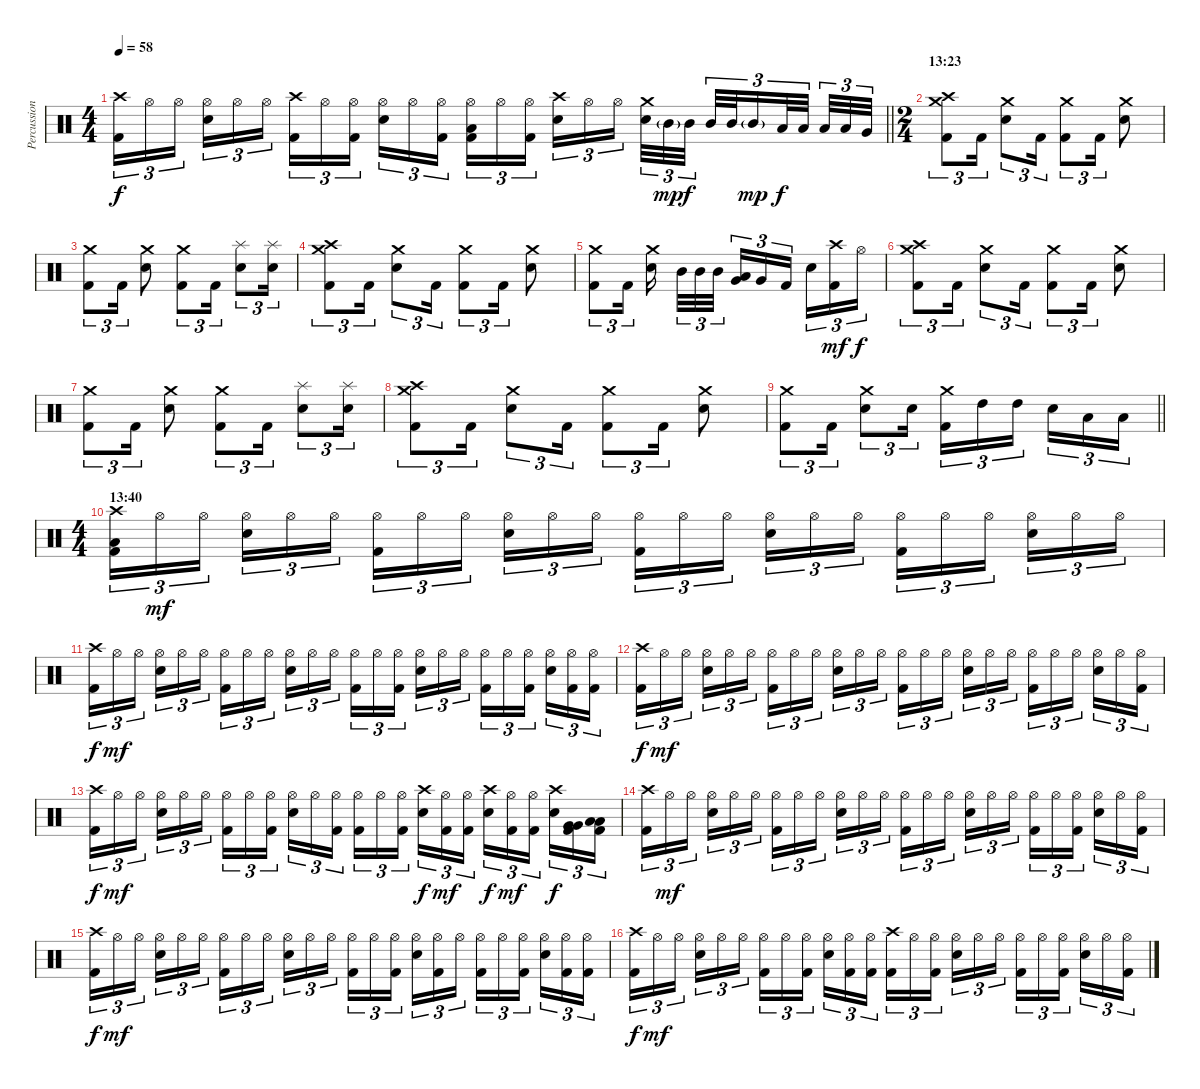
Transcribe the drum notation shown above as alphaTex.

\track ("Percussions" "Percussion") {instrument percussion}
\staff {score}
\articulation defaults
\ts (4 4)
\tempo 58
\clef neutral
\barLineRight lightlight
\ks c
("Crash high (hit)" "Kick (hit) 2").16{tu (3 2) dy f} "Hi-Hat (open)".16{tu (3 2)} "Hi-Hat (open)".16{tu (3 2) beam splitsecondary} ("Hi-Hat (open)" "Snare (hit) 2").16{tu (3 2)} "Hi-Hat (open)".16{tu (3 2)} "Hi-Hat (open)".16{tu (3 2)} ("Crash high (hit)" "Kick (hit) 2").16{tu (3 2)} "Hi-Hat (open)".16{tu (3 2)} ("Hi-Hat (open)" "Kick (hit) 2").16{tu (3 2) beam splitsecondary} ("Hi-Hat (open)" "Snare (hit) 2").16{tu (3 2)} "Hi-Hat (open)".16{tu (3 2)} ("Hi-Hat (open)" "Kick (hit) 2").16{tu (3 2)} ("Hi-Hat (open)" "Low Floor Tom (hit)" "Kick (hit) 2").16{tu (3 2)} "Hi-Hat (open)".16{tu (3 2)} ("Hi-Hat (open)" "Kick (hit) 2").16{tu (3 2) beam splitsecondary} ("Crash high (hit)" "Snare (hit) 2").16{tu (3 2)} "Hi-Hat (open)".16{tu (3 2)} "Hi-Hat (open)".16{tu (3 2)} ("Crash medium (hit)" "Snare (hit) 2").32{tu (3 2)} "Mid Tom (hit)"{g}.32{tu (3 2) dy mp} "Mid Tom (hit)".32{tu (3 2) dy f beam splitsecondary} "Mid Tom (hit)".32{tu (3 2)} "Mid Tom (hit)".32{tu (3 2)} "Mid Tom (hit)"{g}.16{tu (3 2) dy mp} "Low Tom (hit)".32{tu (3 2) dy f} "Low Tom (hit)".32{tu (3 2) beam splitsecondary} "Low Tom (hit)".32{tu (3 2)} "Low Tom (hit)".32{tu (3 2)} "Very Low Tom (hit)".32{tu (3 2)} |
\ts (2 4)
\section ("" "13:23")
("Crash medium (hit)" "Crash high (hit)" "Kick (hit) 2").8{tu (3 2)} "Kick (hit) 2".16{tu (3 2)} ("Crash medium (hit)" "Snare (hit) 2").8{tu (3 2)} "Kick (hit) 2".16{tu (3 2)} ("Crash medium (hit)" "Kick (hit) 2").8{tu (3 2)} "Kick (hit) 2".16{tu (3 2)} ("Crash medium (hit)" "Snare (hit) 2").8 |
("Crash medium (hit)" "Kick (hit) 2").8{tu (3 2)} "Kick (hit) 2".16{tu (3 2)} ("Crash medium (hit)" "Snare (hit) 2").8 ("Crash medium (hit)" "Kick (hit) 2").8{tu (3 2)} "Kick (hit) 2".16{tu (3 2)} ("Splash (hit)" "Snare (hit) 2").8{tu (3 2)} ("Splash (hit)" "Snare (hit) 2").16{tu (3 2)} |
("Crash medium (hit)" "Crash high (hit)" "Kick (hit) 2").8{tu (3 2)} "Kick (hit) 2".16{tu (3 2)} ("Crash medium (hit)" "Snare (hit) 2").8{tu (3 2)} "Kick (hit) 2".16{tu (3 2)} ("Crash medium (hit)" "Kick (hit) 2").8{tu (3 2)} "Kick (hit) 2".16{tu (3 2)} ("Crash medium (hit)" "Snare (hit) 2").8 |
("Crash medium (hit)" "Kick (hit) 2").8{tu (3 2)} "Kick (hit) 2".16{tu (3 2) beam splitsecondary} ("Crash medium (hit)" "Snare (hit) 2").16{beam splitsecondary} "Mid Tom (hit)".32{tu (3 2)} "Mid Tom (hit)".32{tu (3 2)} "Mid Tom (hit)".32{tu (3 2)} ("Low Tom (hit)" "Very Low Tom (hit)").16{tu (3 2)} "Very Low Tom (hit)".16{tu (3 2)} "Kick (hit) 2".16{tu (3 2) beam splitsecondary} "Snare (hit) 2".16{tu (3 2)} ("Crash high (hit)" "Kick (hit) 2").16{tu (3 2) dy mf} "Hi-Hat (open)".16{tu (3 2) dy f} |
("Crash medium (hit)" "Crash high (hit)" "Kick (hit) 2").8{tu (3 2)} "Kick (hit) 2".16{tu (3 2)} ("Crash medium (hit)" "Snare (hit) 2").8{tu (3 2)} "Kick (hit) 2".16{tu (3 2)} ("Crash medium (hit)" "Kick (hit) 2").8{tu (3 2)} "Kick (hit) 2".16{tu (3 2)} ("Crash medium (hit)" "Snare (hit) 2").8 |
("Crash medium (hit)" "Kick (hit) 2").8{tu (3 2)} "Kick (hit) 2".16{tu (3 2)} ("Crash medium (hit)" "Snare (hit) 2").8 ("Crash medium (hit)" "Kick (hit) 2").8{tu (3 2)} "Kick (hit) 2".16{tu (3 2)} ("Splash (hit)" "Snare (hit) 2").8{tu (3 2)} ("Splash (hit)" "Snare (hit) 2").16{tu (3 2)} |
("Crash medium (hit)" "Crash high (hit)" "Kick (hit) 2").8{tu (3 2)} "Kick (hit) 2".16{tu (3 2)} ("Crash medium (hit)" "Snare (hit) 2").8{tu (3 2)} "Kick (hit) 2".16{tu (3 2)} ("Crash medium (hit)" "Kick (hit) 2").8{tu (3 2)} "Kick (hit) 2".16{tu (3 2)} ("Crash medium (hit)" "Snare (hit) 2").8 |
\barLineRight lightlight
("Crash medium (hit)" "Kick (hit) 2").8{tu (3 2)} "Kick (hit) 2".16{tu (3 2)} ("Crash medium (hit)" "Snare (hit) 2").8{tu (3 2)} "Snare (hit) 2".16{tu (3 2)} ("Crash medium (hit)" "Kick (hit) 2").16{tu (3 2)} "High Tom (hit)".16{tu (3 2)} "High Tom (hit)".16{tu (3 2) beam splitsecondary} "Snare (hit) 2".16{tu (3 2)} "Low Tom (hit)".16{tu (3 2)} "Low Tom (hit)".16{tu (3 2)} |
\ts (4 4)
\section ("" "13:40")
("Low Floor Tom (hit)" "Crash high (hit)" "Kick (hit) 2").16{tu (3 2)} "Hi-Hat (open)".16{tu (3 2) dy mf} "Hi-Hat (open)".16{tu (3 2) beam splitsecondary} ("Hi-Hat (open)" "Snare (hit) 2").16{tu (3 2)} "Hi-Hat (open)".16{tu (3 2)} "Hi-Hat (open)".16{tu (3 2)} ("Hi-Hat (open)" "Kick (hit) 2").16{tu (3 2)} "Hi-Hat (open)".16{tu (3 2)} "Hi-Hat (open)".16{tu (3 2) beam splitsecondary} ("Hi-Hat (open)" "Snare (hit) 2").16{tu (3 2)} "Hi-Hat (open)".16{tu (3 2)} "Hi-Hat (open)".16{tu (3 2)} ("Hi-Hat (open)" "Kick (hit) 2").16{tu (3 2)} "Hi-Hat (open)".16{tu (3 2)} "Hi-Hat (open)".16{tu (3 2) beam splitsecondary} ("Hi-Hat (open)" "Snare (hit) 2").16{tu (3 2)} "Hi-Hat (open)".16{tu (3 2)} "Hi-Hat (open)".16{tu (3 2)} ("Hi-Hat (open)" "Kick (hit) 2").16{tu (3 2)} "Hi-Hat (open)".16{tu (3 2)} "Hi-Hat (open)".16{tu (3 2) beam splitsecondary} ("Hi-Hat (open)" "Snare (hit) 2").16{tu (3 2)} "Hi-Hat (open)".16{tu (3 2)} "Hi-Hat (open)".16{tu (3 2)} |
("Crash high (hit)" "Kick (hit) 2").16{tu (3 2) dy f} "Hi-Hat (open)".16{tu (3 2) dy mf} "Hi-Hat (open)".16{tu (3 2) beam splitsecondary} ("Hi-Hat (open)" "Snare (hit) 2").16{tu (3 2)} "Hi-Hat (open)".16{tu (3 2)} "Hi-Hat (open)".16{tu (3 2)} ("Hi-Hat (open)" "Kick (hit) 2").16{tu (3 2)} "Hi-Hat (open)".16{tu (3 2)} "Hi-Hat (open)".16{tu (3 2) beam splitsecondary} ("Hi-Hat (open)" "Snare (hit) 2").16{tu (3 2)} "Hi-Hat (open)".16{tu (3 2)} "Hi-Hat (open)".16{tu (3 2)} ("Hi-Hat (open)" "Kick (hit) 2").16{tu (3 2)} "Hi-Hat (open)".16{tu (3 2)} ("Hi-Hat (open)" "Kick (hit) 2").16{tu (3 2) beam splitsecondary} ("Hi-Hat (open)" "Snare (hit) 2").16{tu (3 2)} "Hi-Hat (open)".16{tu (3 2)} "Hi-Hat (open)".16{tu (3 2)} ("Hi-Hat (open)" "Kick (hit) 2").16{tu (3 2)} "Hi-Hat (open)".16{tu (3 2)} ("Hi-Hat (open)" "Kick (hit) 2").16{tu (3 2) beam splitsecondary} ("Hi-Hat (open)" "Snare (hit) 2").16{tu (3 2)} ("Hi-Hat (open)" "Kick (hit) 2").16{tu (3 2)} ("Hi-Hat (open)" "Kick (hit) 2").16{tu (3 2)} |
("Crash high (hit)" "Kick (hit) 2").16{tu (3 2) dy f} "Hi-Hat (open)".16{tu (3 2) dy mf} "Hi-Hat (open)".16{tu (3 2) beam splitsecondary} ("Hi-Hat (open)" "Snare (hit) 2").16{tu (3 2)} "Hi-Hat (open)".16{tu (3 2)} "Hi-Hat (open)".16{tu (3 2)} ("Hi-Hat (open)" "Kick (hit) 2").16{tu (3 2)} "Hi-Hat (open)".16{tu (3 2)} "Hi-Hat (open)".16{tu (3 2) beam splitsecondary} ("Hi-Hat (open)" "Snare (hit) 2").16{tu (3 2)} "Hi-Hat (open)".16{tu (3 2)} "Hi-Hat (open)".16{tu (3 2)} ("Hi-Hat (open)" "Kick (hit) 2").16{tu (3 2)} "Hi-Hat (open)".16{tu (3 2)} "Hi-Hat (open)".16{tu (3 2) beam splitsecondary} ("Hi-Hat (open)" "Snare (hit) 2").16{tu (3 2)} "Hi-Hat (open)".16{tu (3 2)} "Hi-Hat (open)".16{tu (3 2)} ("Hi-Hat (open)" "Kick (hit) 2").16{tu (3 2)} "Hi-Hat (open)".16{tu (3 2)} "Hi-Hat (open)".16{tu (3 2) beam splitsecondary} ("Hi-Hat (open)" "Snare (hit) 2").16{tu (3 2)} "Hi-Hat (open)".16{tu (3 2)} ("Hi-Hat (open)" "Kick (hit) 2").16{tu (3 2)} |
("Crash high (hit)" "Kick (hit) 2").16{tu (3 2) dy f} "Hi-Hat (open)".16{tu (3 2) dy mf} "Hi-Hat (open)".16{tu (3 2) beam splitsecondary} ("Hi-Hat (open)" "Snare (hit) 2").16{tu (3 2)} "Hi-Hat (open)".16{tu (3 2)} "Hi-Hat (open)".16{tu (3 2)} ("Hi-Hat (open)" "Kick (hit) 2").16{tu (3 2)} "Hi-Hat (open)".16{tu (3 2)} ("Hi-Hat (open)" "Kick (hit) 2").16{tu (3 2) beam splitsecondary} ("Hi-Hat (open)" "Snare (hit) 2").16{tu (3 2)} "Hi-Hat (open)".16{tu (3 2)} ("Hi-Hat (open)" "Kick (hit) 2").16{tu (3 2)} ("Hi-Hat (open)" "Kick (hit) 2").16{tu (3 2)} "Hi-Hat (open)".16{tu (3 2)} ("Hi-Hat (open)" "Kick (hit) 2").16{tu (3 2) beam splitsecondary} ("Crash high (hit)" "Snare (hit) 2").16{tu (3 2) dy f} ("Hi-Hat (open)" "Kick (hit) 2").16{tu (3 2) dy mf} ("Hi-Hat (open)" "Kick (hit) 2").16{tu (3 2)} ("Crash high (hit)" "Snare (hit) 2").16{tu (3 2) dy f} ("Hi-Hat (open)" "Kick (hit) 2").16{tu (3 2) dy mf} ("Hi-Hat (open)" "Kick (hit) 2").16{tu (3 2) beam splitsecondary} ("Crash high (hit)" "Snare (hit) 2").16{tu (3 2) dy f} ("Very Low Tom (hit)" "Very Low Tom (hit)" "Kick (hit) 2").16{tu (3 2)} ("Low Floor Tom (hit)" "Low Floor Tom (hit)" "Kick (hit) 2").16{tu (3 2)} |
("Crash high (hit)" "Kick (hit) 2").16{tu (3 2)} "Hi-Hat (open)".16{tu (3 2) dy mf} "Hi-Hat (open)".16{tu (3 2) beam splitsecondary} ("Hi-Hat (open)" "Snare (hit) 2").16{tu (3 2)} "Hi-Hat (open)".16{tu (3 2)} "Hi-Hat (open)".16{tu (3 2)} ("Hi-Hat (open)" "Kick (hit) 2").16{tu (3 2)} "Hi-Hat (open)".16{tu (3 2)} "Hi-Hat (open)".16{tu (3 2) beam splitsecondary} ("Hi-Hat (open)" "Snare (hit) 2").16{tu (3 2)} "Hi-Hat (open)".16{tu (3 2)} "Hi-Hat (open)".16{tu (3 2)} ("Hi-Hat (open)" "Kick (hit) 2").16{tu (3 2)} "Hi-Hat (open)".16{tu (3 2)} "Hi-Hat (open)".16{tu (3 2) beam splitsecondary} ("Hi-Hat (open)" "Snare (hit) 2").16{tu (3 2)} "Hi-Hat (open)".16{tu (3 2)} "Hi-Hat (open)".16{tu (3 2)} ("Hi-Hat (open)" "Kick (hit) 2").16{tu (3 2)} "Hi-Hat (open)".16{tu (3 2)} ("Hi-Hat (open)" "Kick (hit) 2").16{tu (3 2) beam splitsecondary} ("Hi-Hat (open)" "Snare (hit) 2").16{tu (3 2)} "Hi-Hat (open)".16{tu (3 2)} ("Hi-Hat (open)" "Kick (hit) 2").16{tu (3 2)} |
("Crash high (hit)" "Kick (hit) 2").16{tu (3 2) dy f} "Hi-Hat (open)".16{tu (3 2) dy mf} "Hi-Hat (open)".16{tu (3 2) beam splitsecondary} ("Hi-Hat (open)" "Snare (hit) 2").16{tu (3 2)} "Hi-Hat (open)".16{tu (3 2)} "Hi-Hat (open)".16{tu (3 2)} ("Hi-Hat (open)" "Kick (hit) 2").16{tu (3 2)} "Hi-Hat (open)".16{tu (3 2)} "Hi-Hat (open)".16{tu (3 2) beam splitsecondary} ("Hi-Hat (open)" "Snare (hit) 2").16{tu (3 2)} "Hi-Hat (open)".16{tu (3 2)} "Hi-Hat (open)".16{tu (3 2)} ("Hi-Hat (open)" "Kick (hit) 2").16{tu (3 2)} "Hi-Hat (open)".16{tu (3 2)} ("Hi-Hat (open)" "Kick (hit) 2").16{tu (3 2) beam splitsecondary} ("Hi-Hat (open)" "Snare (hit) 2").16{tu (3 2)} ("Hi-Hat (open)" "Kick (hit) 2").16{tu (3 2)} "Hi-Hat (open)".16{tu (3 2)} ("Hi-Hat (open)" "Kick (hit) 2").16{tu (3 2)} "Hi-Hat (open)".16{tu (3 2)} ("Hi-Hat (open)" "Kick (hit) 2").16{tu (3 2) beam splitsecondary} ("Hi-Hat (open)" "Snare (hit) 2").16{tu (3 2)} ("Hi-Hat (open)" "Kick (hit) 2").16{tu (3 2)} ("Hi-Hat (open)" "Kick (hit) 2").16{tu (3 2)} |
("Crash high (hit)" "Kick (hit) 2").16{tu (3 2) dy f} "Hi-Hat (open)".16{tu (3 2) dy mf} "Hi-Hat (open)".16{tu (3 2) beam splitsecondary} ("Hi-Hat (open)" "Snare (hit) 2").16{tu (3 2)} "Hi-Hat (open)".16{tu (3 2)} "Hi-Hat (open)".16{tu (3 2)} ("Hi-Hat (open)" "Kick (hit) 2").16{tu (3 2)} "Hi-Hat (open)".16{tu (3 2)} ("Hi-Hat (open)" "Kick (hit) 2").16{tu (3 2) beam splitsecondary} ("Hi-Hat (open)" "Snare (hit) 2").16{tu (3 2)} ("Hi-Hat (open)" "Kick (hit) 2").16{tu (3 2)} ("Hi-Hat (open)" "Kick (hit) 2").16{tu (3 2)} ("Crash high (hit)" "Kick (hit) 2").16{tu (3 2)} "Hi-Hat (open)".16{tu (3 2)} ("Hi-Hat (open)" "Kick (hit) 2").16{tu (3 2) beam splitsecondary} ("Hi-Hat (open)" "Snare (hit) 2").16{tu (3 2)} "Hi-Hat (open)".16{tu (3 2)} "Hi-Hat (open)".16{tu (3 2)} ("Hi-Hat (open)" "Kick (hit) 2").16{tu (3 2)} "Hi-Hat (open)".16{tu (3 2)} ("Hi-Hat (open)" "Kick (hit) 2").16{tu (3 2) beam splitsecondary} ("Hi-Hat (open)" "Snare (hit) 2").16{tu (3 2)} "Hi-Hat (open)".16{tu (3 2)} ("Hi-Hat (open)" "Kick (hit) 2").16{tu (3 2)}
